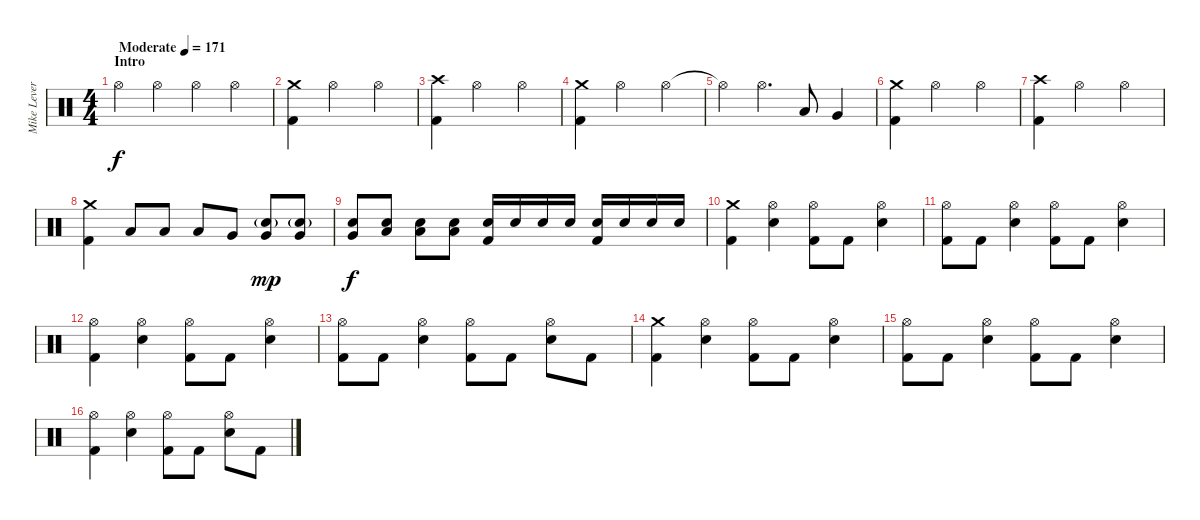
\track ("Mike Leverence - Drums" "Mike Lever") {instrument percussion}
\staff {score}
\articulation defaults
\ts (4 4)
\section ("" "Intro")
\tempo (171 "Moderate")
\clef neutral
\ks c "Hi-Hat (open)".4{dy f} "Hi-Hat (open)".4 "Hi-Hat (open)".4 "Hi-Hat (open)".4
|
("Crash medium (hit)" "Kick (hit) 2").4 "Hi-Hat (open)".2 "Hi-Hat (open)".4 |
("Crash high (hit)" "Kick (hit) 2").4 "Hi-Hat (open)".2 "Hi-Hat (open)".4 |
("Crash medium (hit)" "Kick (hit) 2").4 "Hi-Hat (open)".2 "Hi-Hat (open)".4 |
"Hi-Hat (open)"{t}.4 "Hi-Hat (open)".4{d} "Low Tom (hit)".8 "Very Low Tom (hit)".4 |
("Crash medium (hit)" "Kick (hit) 2").4 "Hi-Hat (open)".2 "Hi-Hat (open)".4 |
("Crash high (hit)" "Kick (hit) 2").4 "Hi-Hat (open)".2 "Hi-Hat (open)".4 |
("Crash medium (hit)" "Kick (hit) 2").4 "Low Floor Tom (hit)".8 "Low Floor Tom (hit)".8 "Low Floor Tom (hit)".8 "Very Low Tom (hit)".8 ("Electric Snare (hit)"{g} "Very Low Tom (hit)").8{dy mp} ("Electric Snare (hit)"{g} "Very Low Tom (hit)").8 |
("Electric Snare (hit)" "Very Low Tom (hit)").8{dy f} ("Electric Snare (hit)" "Low Tom (hit)").8 ("Electric Snare (hit)" "Low Tom (hit)").8 ("Electric Snare (hit)" "Low Tom (hit)").8 ("Electric Snare (hit)" "Kick (hit) 2").16 "Electric Snare (hit)".16 "Electric Snare (hit)".16 "Electric Snare (hit)".16 ("Electric Snare (hit)" "Kick (hit) 2").16 "Electric Snare (hit)".16 "Electric Snare (hit)".16 "Electric Snare (hit)".16 |
("Crash medium (hit)" "Kick (hit) 2").4 ("Hi-Hat (open)" "Electric Snare (hit)").4 ("Hi-Hat (open)" "Kick (hit) 2").8 "Kick (hit) 2".8 ("Hi-Hat (open)" "Electric Snare (hit)").4 |
("Hi-Hat (open)" "Kick (hit) 2").8 "Kick (hit) 2".8 ("Hi-Hat (open)" "Electric Snare (hit)").4 ("Hi-Hat (open)" "Kick (hit) 2").8 "Kick (hit) 2".8 ("Hi-Hat (open)" "Electric Snare (hit)").4 |
("Hi-Hat (open)" "Kick (hit) 2").4 ("Hi-Hat (open)" "Electric Snare (hit)").4 ("Hi-Hat (open)" "Kick (hit) 2").8 "Kick (hit) 2".8 ("Hi-Hat (open)" "Electric Snare (hit)").4 |
("Hi-Hat (open)" "Kick (hit) 2").8 "Kick (hit) 2".8 ("Hi-Hat (open)" "Electric Snare (hit)").4 ("Hi-Hat (open)" "Kick (hit) 2").8 "Kick (hit) 2".8 ("Hi-Hat (open)" "Electric Snare (hit)").8 "Kick (hit) 2".8 |
("Crash medium (hit)" "Kick (hit) 2").4 ("Hi-Hat (open)" "Electric Snare (hit)").4 ("Hi-Hat (open)" "Kick (hit) 2").8 "Kick (hit) 2".8 ("Hi-Hat (open)" "Electric Snare (hit)").4 |
("Hi-Hat (open)" "Kick (hit) 2").8 "Kick (hit) 2".8 ("Hi-Hat (open)" "Electric Snare (hit)").4 ("Hi-Hat (open)" "Kick (hit) 2").8 "Kick (hit) 2".8 ("Hi-Hat (open)" "Electric Snare (hit)").4 |
("Hi-Hat (open)" "Kick (hit) 2").4 ("Hi-Hat (open)" "Electric Snare (hit)").4 ("Hi-Hat (open)" "Kick (hit) 2").8 "Kick (hit) 2".8 ("Hi-Hat (open)" "Electric Snare (hit)").8 "Kick (hit) 2".8
